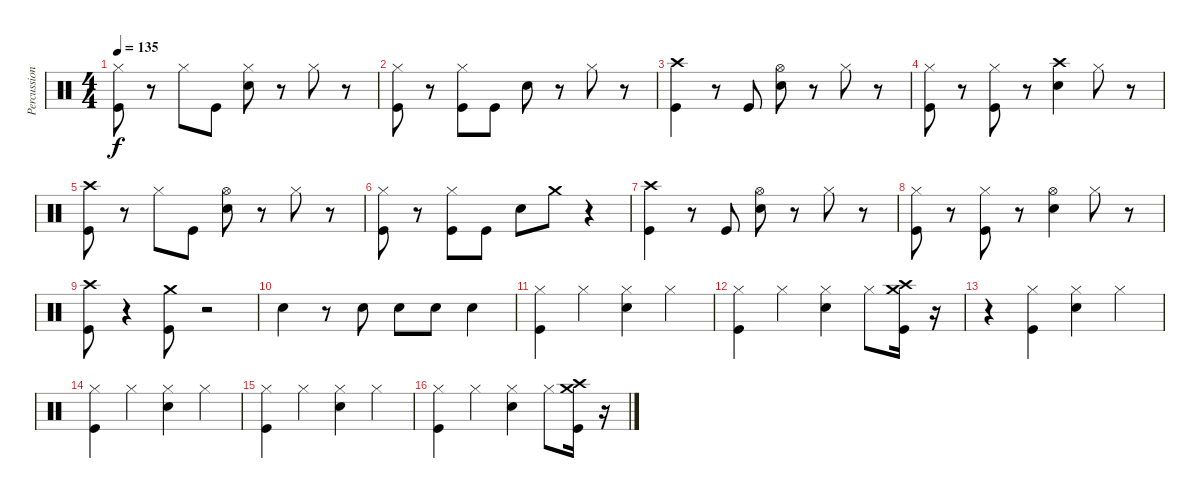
\track ("Percussions" "Percussion") {instrument percussion}
\staff {score}
\articulation defaults
\ts (4 4)
\tempo 135
\clef neutral
\ks c
("Hi-Hat (closed)" "Kick (hit)").8{dy f} r.8 "Hi-Hat (closed)".8 "Kick (hit)".8 ("Hi-Hat (closed)" "Snare (hit) 2").8 r.8 "Hi-Hat (closed)".8 r.8 |
("Hi-Hat (closed)" "Kick (hit)").8 r.8 ("Hi-Hat (closed)" "Kick (hit)").8 "Kick (hit)".8 "Snare (hit) 2".8 r.8 "Hi-Hat (closed)".8 r.8 |
("Kick (hit)" "Crash high (hit)").4 r.8 "Kick (hit)".8 ("Hi-Hat (open)" "Snare (hit) 2").8 r.8 "Hi-Hat (closed)".8 r.8 |
("Hi-Hat (closed)" "Kick (hit)").8 r.8 ("Hi-Hat (closed)" "Kick (hit)").8 r.8 ("Crash high (hit)" "Snare (hit) 2").4 "Hi-Hat (closed)".8 r.8 |
("Kick (hit)" "Crash high (hit)").8 r.8 "Hi-Hat (closed)".8 "Kick (hit)".8 ("Hi-Hat (open)" "Snare (hit) 2").8 r.8 "Hi-Hat (closed)".8 r.8 |
("Hi-Hat (closed)" "Kick (hit)").8 r.8 ("Hi-Hat (closed)" "Kick (hit)").8 "Kick (hit)".8 "Snare (hit) 2".8 "Crash medium (hit)".8 r.4 |
("Kick (hit)" "Crash high (hit)").4 r.8 "Kick (hit)".8 ("Hi-Hat (open)" "Snare (hit) 2").8 r.8 "Hi-Hat (closed)".8 r.8 |
("Hi-Hat (closed)" "Kick (hit)").8 r.8 ("Hi-Hat (closed)" "Kick (hit)").8 r.8 ("Hi-Hat (open)" "Snare (hit) 2").4 "Hi-Hat (closed)".8 r.8 |
("Kick (hit)" "Crash high (hit)").8 r.4 ("Crash medium (hit)" "Kick (hit)").8 r.2 |
"Snare (hit) 2".4 r.8 "Snare (hit) 2".8 "Snare (hit) 2".8 "Snare (hit) 2".8 "Snare (hit) 2".4 |
("Kick (hit)" "Hi-Hat (closed)").4 "Hi-Hat (closed)".4 ("Snare (hit) 2" "Hi-Hat (closed)").4 "Hi-Hat (closed)".4 |
("Kick (hit)" "Hi-Hat (closed)").4 "Hi-Hat (closed)".4 ("Snare (hit) 2" "Hi-Hat (closed)").4 "Hi-Hat (closed)".8 ("Crash high (hit)" "Kick (hit)" "Crash medium (hit)").16 r.16 |
r.4 ("Kick (hit)" "Hi-Hat (closed)").4 ("Snare (hit) 2" "Hi-Hat (closed)").4 "Hi-Hat (closed)".4 |
("Kick (hit)" "Hi-Hat (closed)").4 "Hi-Hat (closed)".4 ("Snare (hit) 2" "Hi-Hat (closed)").4 "Hi-Hat (closed)".4 |
("Kick (hit)" "Hi-Hat (closed)").4 "Hi-Hat (closed)".4 ("Snare (hit) 2" "Hi-Hat (closed)").4 "Hi-Hat (closed)".4 |
("Kick (hit)" "Hi-Hat (closed)").4 "Hi-Hat (closed)".4 ("Snare (hit) 2" "Hi-Hat (closed)").4 "Hi-Hat (closed)".8 ("Crash medium (hit)" "Crash high (hit)" "Kick (hit)").16 r.16
